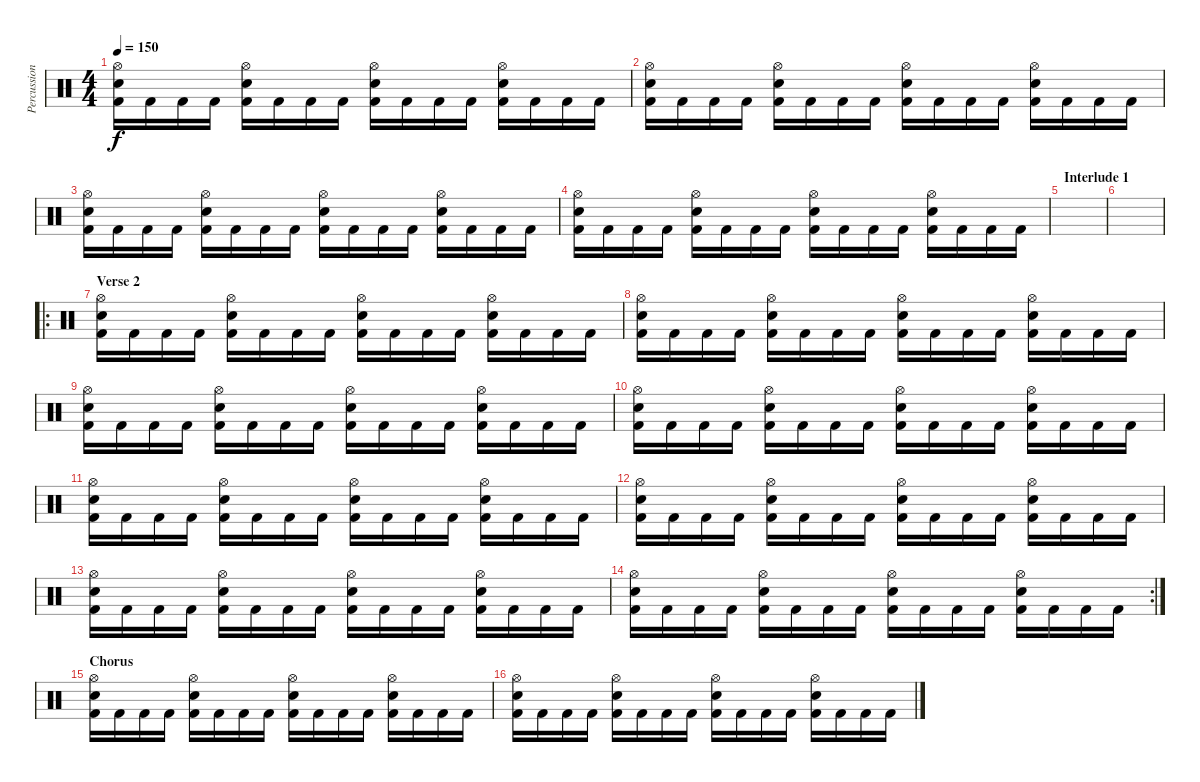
\track ("Percussion" "Percussion") {instrument percussion}
\staff {score}
\articulation defaults
\ts (4 4)
\tempo 150
\clef neutral
\ks c
("Hi-Hat (open)" "Snare (hit) 2" "Kick (hit) 2").16{dy f} "Kick (hit) 2".16 "Kick (hit) 2".16 "Kick (hit) 2".16 ("Hi-Hat (open)" "Snare (hit) 2" "Kick (hit) 2").16 "Kick (hit) 2".16 "Kick (hit) 2".16 "Kick (hit) 2".16 ("Hi-Hat (open)" "Snare (hit) 2" "Kick (hit) 2").16 "Kick (hit) 2".16 "Kick (hit) 2".16 "Kick (hit) 2".16 ("Hi-Hat (open)" "Snare (hit) 2" "Kick (hit) 2").16 "Kick (hit) 2".16 "Kick (hit) 2".16 "Kick (hit) 2".16 |
("Hi-Hat (open)" "Snare (hit) 2" "Kick (hit) 2").16 "Kick (hit) 2".16 "Kick (hit) 2".16 "Kick (hit) 2".16 ("Hi-Hat (open)" "Snare (hit) 2" "Kick (hit) 2").16 "Kick (hit) 2".16 "Kick (hit) 2".16 "Kick (hit) 2".16 ("Hi-Hat (open)" "Snare (hit) 2" "Kick (hit) 2").16 "Kick (hit) 2".16 "Kick (hit) 2".16 "Kick (hit) 2".16 ("Hi-Hat (open)" "Snare (hit) 2" "Kick (hit) 2").16 "Kick (hit) 2".16 "Kick (hit) 2".16 "Kick (hit) 2".16 |
("Hi-Hat (open)" "Snare (hit) 2" "Kick (hit) 2").16 "Kick (hit) 2".16 "Kick (hit) 2".16 "Kick (hit) 2".16 ("Hi-Hat (open)" "Snare (hit) 2" "Kick (hit) 2").16 "Kick (hit) 2".16 "Kick (hit) 2".16 "Kick (hit) 2".16 ("Hi-Hat (open)" "Snare (hit) 2" "Kick (hit) 2").16 "Kick (hit) 2".16 "Kick (hit) 2".16 "Kick (hit) 2".16 ("Hi-Hat (open)" "Snare (hit) 2" "Kick (hit) 2").16 "Kick (hit) 2".16 "Kick (hit) 2".16 "Kick (hit) 2".16 |
("Hi-Hat (open)" "Snare (hit) 2" "Kick (hit) 2").16 "Kick (hit) 2".16 "Kick (hit) 2".16 "Kick (hit) 2".16 ("Hi-Hat (open)" "Snare (hit) 2" "Kick (hit) 2").16 "Kick (hit) 2".16 "Kick (hit) 2".16 "Kick (hit) 2".16 ("Hi-Hat (open)" "Snare (hit) 2" "Kick (hit) 2").16 "Kick (hit) 2".16 "Kick (hit) 2".16 "Kick (hit) 2".16 ("Hi-Hat (open)" "Snare (hit) 2" "Kick (hit) 2").16 "Kick (hit) 2".16 "Kick (hit) 2".16 "Kick (hit) 2".16 |
\section ("" "Interlude 1")
|
|
\ro
\section ("" "Verse 2")
("Hi-Hat (open)" "Snare (hit) 2" "Kick (hit) 2").16 "Kick (hit) 2".16 "Kick (hit) 2".16 "Kick (hit) 2".16 ("Hi-Hat (open)" "Snare (hit) 2" "Kick (hit) 2").16 "Kick (hit) 2".16 "Kick (hit) 2".16 "Kick (hit) 2".16 ("Hi-Hat (open)" "Snare (hit) 2" "Kick (hit) 2").16 "Kick (hit) 2".16 "Kick (hit) 2".16 "Kick (hit) 2".16 ("Hi-Hat (open)" "Snare (hit) 2" "Kick (hit) 2").16 "Kick (hit) 2".16 "Kick (hit) 2".16 "Kick (hit) 2".16 |
("Hi-Hat (open)" "Snare (hit) 2" "Kick (hit) 2").16 "Kick (hit) 2".16 "Kick (hit) 2".16 "Kick (hit) 2".16 ("Hi-Hat (open)" "Snare (hit) 2" "Kick (hit) 2").16 "Kick (hit) 2".16 "Kick (hit) 2".16 "Kick (hit) 2".16 ("Hi-Hat (open)" "Snare (hit) 2" "Kick (hit) 2").16 "Kick (hit) 2".16 "Kick (hit) 2".16 "Kick (hit) 2".16 ("Hi-Hat (open)" "Snare (hit) 2" "Kick (hit) 2").16 "Kick (hit) 2".16 "Kick (hit) 2".16 "Kick (hit) 2".16 |
("Hi-Hat (open)" "Snare (hit) 2" "Kick (hit) 2").16 "Kick (hit) 2".16 "Kick (hit) 2".16 "Kick (hit) 2".16 ("Hi-Hat (open)" "Snare (hit) 2" "Kick (hit) 2").16 "Kick (hit) 2".16 "Kick (hit) 2".16 "Kick (hit) 2".16 ("Hi-Hat (open)" "Snare (hit) 2" "Kick (hit) 2").16 "Kick (hit) 2".16 "Kick (hit) 2".16 "Kick (hit) 2".16 ("Hi-Hat (open)" "Snare (hit) 2" "Kick (hit) 2").16 "Kick (hit) 2".16 "Kick (hit) 2".16 "Kick (hit) 2".16 |
("Hi-Hat (open)" "Snare (hit) 2" "Kick (hit) 2").16 "Kick (hit) 2".16 "Kick (hit) 2".16 "Kick (hit) 2".16 ("Hi-Hat (open)" "Snare (hit) 2" "Kick (hit) 2").16 "Kick (hit) 2".16 "Kick (hit) 2".16 "Kick (hit) 2".16 ("Hi-Hat (open)" "Snare (hit) 2" "Kick (hit) 2").16 "Kick (hit) 2".16 "Kick (hit) 2".16 "Kick (hit) 2".16 ("Hi-Hat (open)" "Snare (hit) 2" "Kick (hit) 2").16 "Kick (hit) 2".16 "Kick (hit) 2".16 "Kick (hit) 2".16 |
("Hi-Hat (open)" "Snare (hit) 2" "Kick (hit) 2").16 "Kick (hit) 2".16 "Kick (hit) 2".16 "Kick (hit) 2".16 ("Hi-Hat (open)" "Snare (hit) 2" "Kick (hit) 2").16 "Kick (hit) 2".16 "Kick (hit) 2".16 "Kick (hit) 2".16 ("Hi-Hat (open)" "Snare (hit) 2" "Kick (hit) 2").16 "Kick (hit) 2".16 "Kick (hit) 2".16 "Kick (hit) 2".16 ("Hi-Hat (open)" "Snare (hit) 2" "Kick (hit) 2").16 "Kick (hit) 2".16 "Kick (hit) 2".16 "Kick (hit) 2".16 |
("Hi-Hat (open)" "Snare (hit) 2" "Kick (hit) 2").16 "Kick (hit) 2".16 "Kick (hit) 2".16 "Kick (hit) 2".16 ("Hi-Hat (open)" "Snare (hit) 2" "Kick (hit) 2").16 "Kick (hit) 2".16 "Kick (hit) 2".16 "Kick (hit) 2".16 ("Hi-Hat (open)" "Snare (hit) 2" "Kick (hit) 2").16 "Kick (hit) 2".16 "Kick (hit) 2".16 "Kick (hit) 2".16 ("Hi-Hat (open)" "Snare (hit) 2" "Kick (hit) 2").16 "Kick (hit) 2".16 "Kick (hit) 2".16 "Kick (hit) 2".16 |
("Hi-Hat (open)" "Snare (hit) 2" "Kick (hit) 2").16 "Kick (hit) 2".16 "Kick (hit) 2".16 "Kick (hit) 2".16 ("Hi-Hat (open)" "Snare (hit) 2" "Kick (hit) 2").16 "Kick (hit) 2".16 "Kick (hit) 2".16 "Kick (hit) 2".16 ("Hi-Hat (open)" "Snare (hit) 2" "Kick (hit) 2").16 "Kick (hit) 2".16 "Kick (hit) 2".16 "Kick (hit) 2".16 ("Hi-Hat (open)" "Snare (hit) 2" "Kick (hit) 2").16 "Kick (hit) 2".16 "Kick (hit) 2".16 "Kick (hit) 2".16 |
\rc 2
("Hi-Hat (open)" "Snare (hit) 2" "Kick (hit) 2").16 "Kick (hit) 2".16 "Kick (hit) 2".16 "Kick (hit) 2".16 ("Hi-Hat (open)" "Snare (hit) 2" "Kick (hit) 2").16 "Kick (hit) 2".16 "Kick (hit) 2".16 "Kick (hit) 2".16 ("Hi-Hat (open)" "Snare (hit) 2" "Kick (hit) 2").16 "Kick (hit) 2".16 "Kick (hit) 2".16 "Kick (hit) 2".16 ("Hi-Hat (open)" "Snare (hit) 2" "Kick (hit) 2").16 "Kick (hit) 2".16 "Kick (hit) 2".16 "Kick (hit) 2".16 |
\section ("" "Chorus")
("Hi-Hat (open)" "Snare (hit) 2" "Kick (hit) 2").16 "Kick (hit) 2".16 "Kick (hit) 2".16 "Kick (hit) 2".16 ("Hi-Hat (open)" "Snare (hit) 2" "Kick (hit) 2").16 "Kick (hit) 2".16 "Kick (hit) 2".16 "Kick (hit) 2".16 ("Hi-Hat (open)" "Snare (hit) 2" "Kick (hit) 2").16 "Kick (hit) 2".16 "Kick (hit) 2".16 "Kick (hit) 2".16 ("Hi-Hat (open)" "Snare (hit) 2" "Kick (hit) 2").16 "Kick (hit) 2".16 "Kick (hit) 2".16 "Kick (hit) 2".16 |
("Hi-Hat (open)" "Snare (hit) 2" "Kick (hit) 2").16 "Kick (hit) 2".16 "Kick (hit) 2".16 "Kick (hit) 2".16 ("Hi-Hat (open)" "Snare (hit) 2" "Kick (hit) 2").16 "Kick (hit) 2".16 "Kick (hit) 2".16 "Kick (hit) 2".16 ("Hi-Hat (open)" "Snare (hit) 2" "Kick (hit) 2").16 "Kick (hit) 2".16 "Kick (hit) 2".16 "Kick (hit) 2".16 ("Hi-Hat (open)" "Snare (hit) 2" "Kick (hit) 2").16 "Kick (hit) 2".16 "Kick (hit) 2".16 "Kick (hit) 2".16
